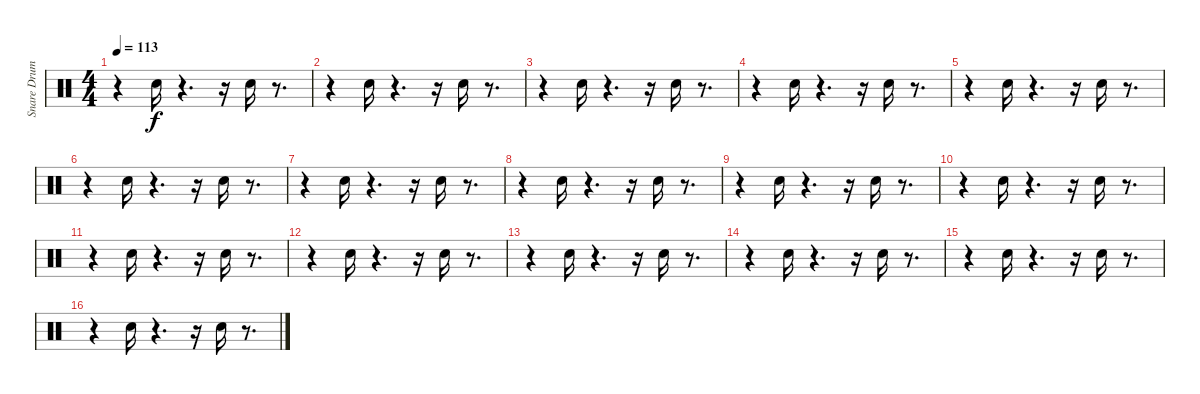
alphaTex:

\track ("Snare Drum" "Snare Drum") {instrument percussion}
\staff {score}
\articulation defaults
\ts (4 4)
\tempo 113
\clef neutral
\ks c
r.4{dy f} "Snare (hit) 2".16 r.4{d} r.16 "Snare (hit) 2".16 r.8{d} |
r.4 "Snare (hit) 2".16 r.4{d} r.16 "Snare (hit) 2".16 r.8{d} |
r.4 "Snare (hit) 2".16 r.4{d} r.16 "Snare (hit) 2".16 r.8{d} |
r.4 "Snare (hit) 2".16 r.4{d} r.16 "Snare (hit) 2".16 r.8{d} |
r.4 "Snare (hit) 2".16 r.4{d} r.16 "Snare (hit) 2".16 r.8{d} |
r.4 "Snare (hit) 2".16 r.4{d} r.16 "Snare (hit) 2".16 r.8{d} |
r.4 "Snare (hit) 2".16 r.4{d} r.16 "Snare (hit) 2".16 r.8{d} |
r.4 "Snare (hit) 2".16 r.4{d} r.16 "Snare (hit) 2".16 r.8{d} |
r.4 "Snare (hit) 2".16 r.4{d} r.16 "Snare (hit) 2".16 r.8{d} |
r.4 "Snare (hit) 2".16 r.4{d} r.16 "Snare (hit) 2".16 r.8{d} |
r.4 "Snare (hit) 2".16 r.4{d} r.16 "Snare (hit) 2".16 r.8{d} |
r.4 "Snare (hit) 2".16 r.4{d} r.16 "Snare (hit) 2".16 r.8{d} |
r.4 "Snare (hit) 2".16 r.4{d} r.16 "Snare (hit) 2".16 r.8{d} |
r.4 "Snare (hit) 2".16 r.4{d} r.16 "Snare (hit) 2".16 r.8{d} |
r.4 "Snare (hit) 2".16 r.4{d} r.16 "Snare (hit) 2".16 r.8{d} |
r.4 "Snare (hit) 2".16 r.4{d} r.16 "Snare (hit) 2".16 r.8{d}
